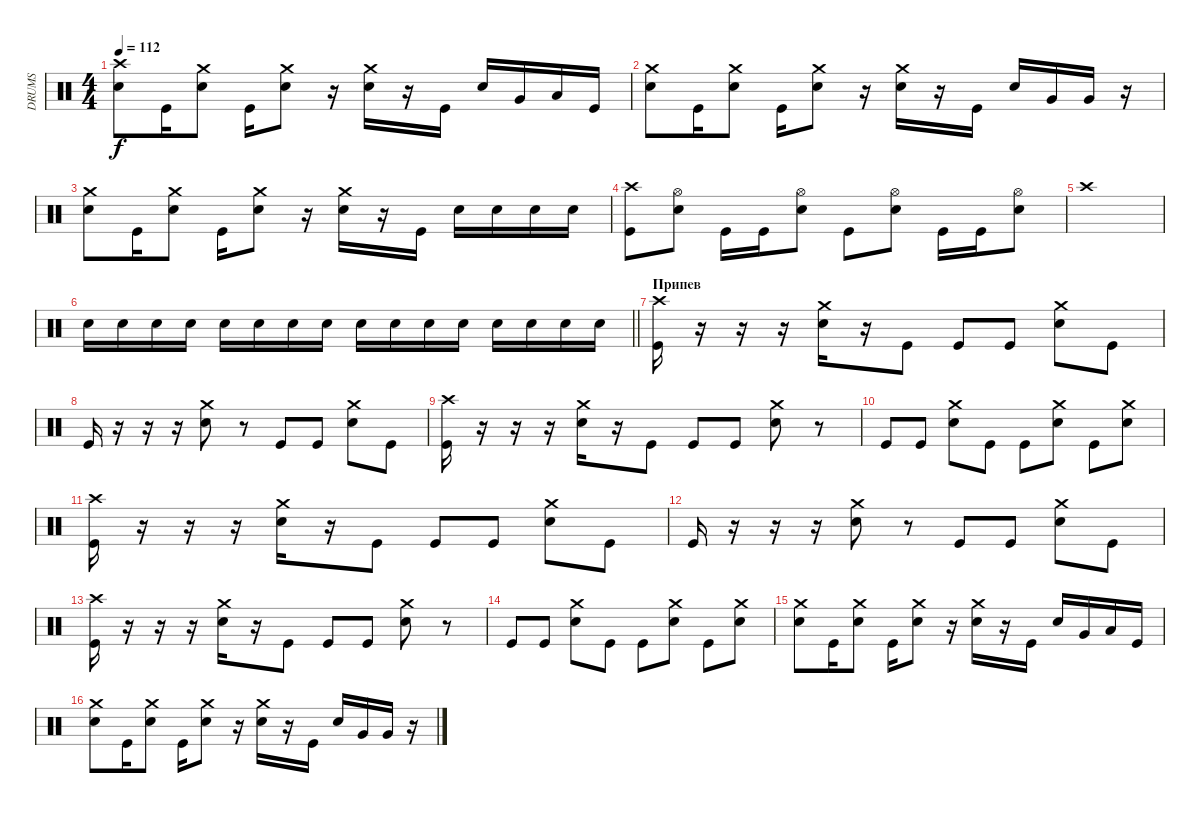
\track ("DRUMS" "DRUMS") {instrument percussion}
\staff {score}
\articulation defaults
\ts (4 4)
\tempo 112
\clef neutral
\ks c
("Crash high (hit)" "Snare (hit) 2").8{dy f} "Kick (hit)".16 ("Crash medium (hit)" "Snare (hit) 2").8 "Kick (hit)".16 ("Crash medium (hit)" "Snare (hit) 2").8 r.16 ("Crash medium (hit)" "Snare (hit) 2").16 r.16 "Kick (hit)".16 "Snare (hit) 2".16 "Very Low Tom (hit)".16 "Low Floor Tom (hit)".16 "Kick (hit)".16 |
("Crash medium (hit)" "Snare (hit) 2").8 "Kick (hit)".16 ("Crash medium (hit)" "Snare (hit) 2").8 "Kick (hit)".16 ("Crash medium (hit)" "Snare (hit) 2").8 r.16 ("Crash medium (hit)" "Snare (hit) 2").16 r.16 "Kick (hit)".16 "Snare (hit) 2".16 "Very Low Tom (hit)".16 "Very Low Tom (hit)".16 r.16 |
("Crash medium (hit)" "Snare (hit) 2").8 "Kick (hit)".16 ("Crash medium (hit)" "Snare (hit) 2").8 "Kick (hit)".16 ("Crash medium (hit)" "Snare (hit) 2").8 r.16 ("Crash medium (hit)" "Snare (hit) 2").16 r.16 "Kick (hit)".16 "Snare (hit) 2".16 "Snare (hit) 2".16 "Snare (hit) 2".16 "Snare (hit) 2".16 |
("Crash high (hit)" "Kick (hit)").8 ("Hi-Hat (open)" "Snare (hit) 2").8 "Kick (hit)".16 "Kick (hit)".16 ("Hi-Hat (open)" "Snare (hit) 2").8 "Kick (hit)".8 ("Hi-Hat (open)" "Snare (hit) 2").8 "Kick (hit)".16 "Kick (hit)".16 ("Hi-Hat (open)" "Snare (hit) 2").8 |
"Crash high (hit)".1 |
\barLineRight lightlight "Snare (hit) 2".16 "Snare (hit) 2".16 "Snare (hit) 2".16 "Snare (hit) 2".16 "Snare (hit) 2".16 "Snare (hit) 2".16 "Snare (hit) 2".16 "Snare (hit) 2".16 "Snare (hit) 2".16 "Snare (hit) 2".16 "Snare (hit) 2".16 "Snare (hit) 2".16 "Snare (hit) 2".16 "Snare (hit) 2".16 "Snare (hit) 2".16 "Snare (hit) 2".16
|
\section ("" "Припев")
("Crash high (hit)" "Kick (hit)").16 r.16 r.16 r.16 ("Crash medium (hit)" "Snare (hit) 2").16 r.16 "Kick (hit)".8 "Kick (hit)".8 "Kick (hit)".8 ("Crash medium (hit)" "Snare (hit) 2").8 "Kick (hit)".8 |
"Kick (hit)".16 r.16 r.16 r.16 ("Crash medium (hit)" "Snare (hit) 2").8 r.8 "Kick (hit)".8 "Kick (hit)".8 ("Crash medium (hit)" "Snare (hit) 2").8 "Kick (hit)".8 |
("Crash high (hit)" "Kick (hit)").16 r.16 r.16 r.16 ("Crash medium (hit)" "Snare (hit) 2").16 r.16 "Kick (hit)".8 "Kick (hit)".8 "Kick (hit)".8 ("Crash medium (hit)" "Snare (hit) 2").8 r.8 |
"Kick (hit)".8 "Kick (hit)".8 ("Crash medium (hit)" "Snare (hit) 2").8 "Kick (hit)".8 "Kick (hit)".8 ("Crash medium (hit)" "Snare (hit) 2").8 "Kick (hit)".8 ("Crash medium (hit)" "Snare (hit) 2").8 |
("Crash high (hit)" "Kick (hit)").16 r.16 r.16 r.16 ("Crash medium (hit)" "Snare (hit) 2").16 r.16 "Kick (hit)".8 "Kick (hit)".8 "Kick (hit)".8 ("Crash medium (hit)" "Snare (hit) 2").8 "Kick (hit)".8 |
"Kick (hit)".16 r.16 r.16 r.16 ("Crash medium (hit)" "Snare (hit) 2").8 r.8 "Kick (hit)".8 "Kick (hit)".8 ("Crash medium (hit)" "Snare (hit) 2").8 "Kick (hit)".8 |
("Crash high (hit)" "Kick (hit)").16 r.16 r.16 r.16 ("Crash medium (hit)" "Snare (hit) 2").16 r.16 "Kick (hit)".8 "Kick (hit)".8 "Kick (hit)".8 ("Crash medium (hit)" "Snare (hit) 2").8 r.8 |
"Kick (hit)".8 "Kick (hit)".8 ("Crash medium (hit)" "Snare (hit) 2").8 "Kick (hit)".8 "Kick (hit)".8 ("Crash medium (hit)" "Snare (hit) 2").8 "Kick (hit)".8 ("Crash medium (hit)" "Snare (hit) 2").8 |
("Crash medium (hit)" "Snare (hit) 2").8 "Kick (hit)".16 ("Crash medium (hit)" "Snare (hit) 2").8 "Kick (hit)".16 ("Crash medium (hit)" "Snare (hit) 2").8 r.16 ("Crash medium (hit)" "Snare (hit) 2").16 r.16 "Kick (hit)".16 "Snare (hit) 2".16 "Very Low Tom (hit)".16 "Low Floor Tom (hit)".16 "Kick (hit)".16 |
("Crash medium (hit)" "Snare (hit) 2").8 "Kick (hit)".16 ("Crash medium (hit)" "Snare (hit) 2").8 "Kick (hit)".16 ("Crash medium (hit)" "Snare (hit) 2").8 r.16 ("Crash medium (hit)" "Snare (hit) 2").16 r.16 "Kick (hit)".16 "Snare (hit) 2".16 "Very Low Tom (hit)".16 "Very Low Tom (hit)".16 r.16
